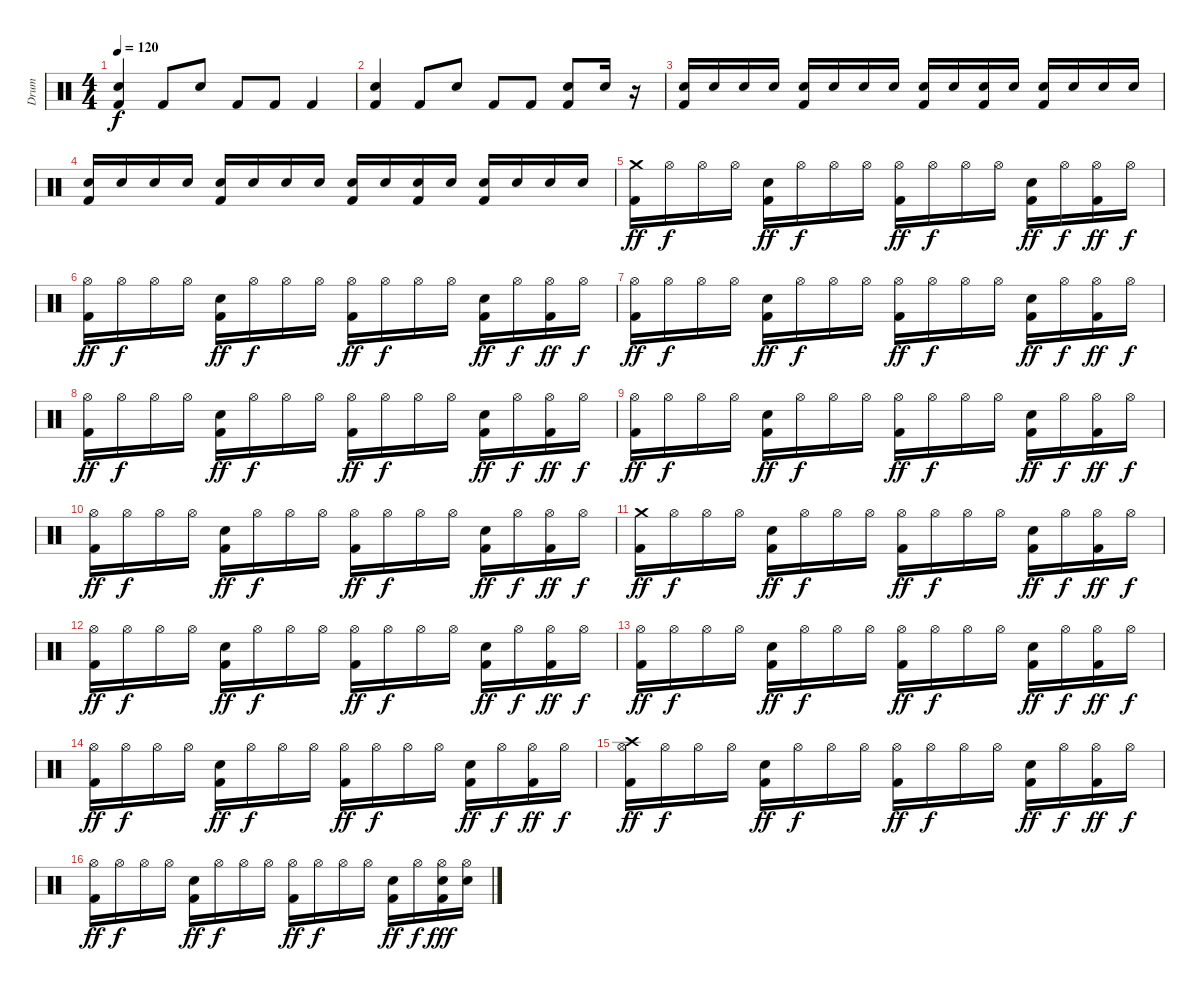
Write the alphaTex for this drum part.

\track ("Drum" "Drum") {instrument percussion}
\staff {score}
\articulation defaults
\ts (4 4)
\tempo 120
\clef neutral
\ks c
("Electric Snare (hit)" "Kick (hit) 2").4{dy f} "Kick (hit) 2".8 "Electric Snare (hit)".8 "Kick (hit) 2".8 "Kick (hit) 2".8 "Kick (hit) 2".4 |
("Electric Snare (hit)" "Kick (hit) 2").4 "Kick (hit) 2".8 "Electric Snare (hit)".8 "Kick (hit) 2".8 "Kick (hit) 2".8 ("Electric Snare (hit)" "Kick (hit) 2").8 "Electric Snare (hit)".16 r.16{volume 2} |
("Electric Snare (hit)" "Kick (hit) 2").16{volume 16} "Electric Snare (hit)".16 "Electric Snare (hit)".16 "Electric Snare (hit)".16 ("Electric Snare (hit)" "Kick (hit) 2").16 "Electric Snare (hit)".16 "Electric Snare (hit)".16 "Electric Snare (hit)".16 ("Electric Snare (hit)" "Kick (hit) 2").16 "Electric Snare (hit)".16 ("Electric Snare (hit)" "Kick (hit) 2").16 "Electric Snare (hit)".16 ("Electric Snare (hit)" "Kick (hit) 2").16 "Electric Snare (hit)".16 "Electric Snare (hit)".16 "Electric Snare (hit)".16 |
("Electric Snare (hit)" "Kick (hit) 2").16 "Electric Snare (hit)".16 "Electric Snare (hit)".16 "Electric Snare (hit)".16 ("Electric Snare (hit)" "Kick (hit) 2").16 "Electric Snare (hit)".16 "Electric Snare (hit)".16 "Electric Snare (hit)".16 ("Electric Snare (hit)" "Kick (hit) 2").16 "Electric Snare (hit)".16 ("Electric Snare (hit)" "Kick (hit) 2").16 "Electric Snare (hit)".16 ("Electric Snare (hit)" "Kick (hit) 2").16 "Electric Snare (hit)".16 "Electric Snare (hit)".16 "Electric Snare (hit)".16 |
("Crash medium (hit)" "Kick (hit) 2").16{dy ff volume 13} "Hi-Hat (open)".16{dy f} "Hi-Hat (open)".16 "Hi-Hat (open)".16 ("Kick (hit) 2" "Electric Snare (hit)").16{dy ff} "Hi-Hat (open)".16{dy f} "Hi-Hat (open)".16 "Hi-Hat (open)".16 ("Hi-Hat (open)" "Kick (hit) 2").16{dy ff} "Hi-Hat (open)".16{dy f} "Hi-Hat (open)".16 "Hi-Hat (open)".16 ("Kick (hit) 2" "Electric Snare (hit)").16{dy ff} "Hi-Hat (open)".16{dy f} ("Hi-Hat (open)" "Kick (hit) 2").16{dy ff} "Hi-Hat (open)".16{dy f} |
("Hi-Hat (open)" "Kick (hit) 2").16{dy ff} "Hi-Hat (open)".16{dy f} "Hi-Hat (open)".16 "Hi-Hat (open)".16 ("Kick (hit) 2" "Electric Snare (hit)").16{dy ff} "Hi-Hat (open)".16{dy f} "Hi-Hat (open)".16 "Hi-Hat (open)".16 ("Hi-Hat (open)" "Kick (hit) 2").16{dy ff} "Hi-Hat (open)".16{dy f} "Hi-Hat (open)".16 "Hi-Hat (open)".16 ("Kick (hit) 2" "Electric Snare (hit)").16{dy ff} "Hi-Hat (open)".16{dy f} ("Hi-Hat (open)" "Kick (hit) 2").16{dy ff} "Hi-Hat (open)".16{dy f} |
("Hi-Hat (open)" "Kick (hit) 2").16{dy ff} "Hi-Hat (open)".16{dy f} "Hi-Hat (open)".16 "Hi-Hat (open)".16 ("Kick (hit) 2" "Electric Snare (hit)").16{dy ff} "Hi-Hat (open)".16{dy f} "Hi-Hat (open)".16 "Hi-Hat (open)".16 ("Hi-Hat (open)" "Kick (hit) 2").16{dy ff} "Hi-Hat (open)".16{dy f} "Hi-Hat (open)".16 "Hi-Hat (open)".16 ("Kick (hit) 2" "Electric Snare (hit)").16{dy ff} "Hi-Hat (open)".16{dy f} ("Hi-Hat (open)" "Kick (hit) 2").16{dy ff} "Hi-Hat (open)".16{dy f} |
("Hi-Hat (open)" "Kick (hit) 2").16{dy ff} "Hi-Hat (open)".16{dy f} "Hi-Hat (open)".16 "Hi-Hat (open)".16 ("Kick (hit) 2" "Electric Snare (hit)").16{dy ff} "Hi-Hat (open)".16{dy f} "Hi-Hat (open)".16 "Hi-Hat (open)".16 ("Hi-Hat (open)" "Kick (hit) 2").16{dy ff} "Hi-Hat (open)".16{dy f} "Hi-Hat (open)".16 "Hi-Hat (open)".16 ("Kick (hit) 2" "Electric Snare (hit)").16{dy ff} "Hi-Hat (open)".16{dy f} ("Hi-Hat (open)" "Kick (hit) 2").16{dy ff} "Hi-Hat (open)".16{dy f} |
("Hi-Hat (open)" "Kick (hit) 2").16{dy ff} "Hi-Hat (open)".16{dy f} "Hi-Hat (open)".16 "Hi-Hat (open)".16 ("Kick (hit) 2" "Electric Snare (hit)").16{dy ff} "Hi-Hat (open)".16{dy f} "Hi-Hat (open)".16 "Hi-Hat (open)".16 ("Hi-Hat (open)" "Kick (hit) 2").16{dy ff} "Hi-Hat (open)".16{dy f} "Hi-Hat (open)".16 "Hi-Hat (open)".16 ("Kick (hit) 2" "Electric Snare (hit)").16{dy ff} "Hi-Hat (open)".16{dy f} ("Hi-Hat (open)" "Kick (hit) 2").16{dy ff} "Hi-Hat (open)".16{dy f} |
("Hi-Hat (open)" "Kick (hit) 2").16{dy ff} "Hi-Hat (open)".16{dy f} "Hi-Hat (open)".16 "Hi-Hat (open)".16 ("Kick (hit) 2" "Electric Snare (hit)").16{dy ff} "Hi-Hat (open)".16{dy f} "Hi-Hat (open)".16 "Hi-Hat (open)".16 ("Hi-Hat (open)" "Kick (hit) 2").16{dy ff} "Hi-Hat (open)".16{dy f} "Hi-Hat (open)".16 "Hi-Hat (open)".16 ("Kick (hit) 2" "Electric Snare (hit)").16{dy ff} "Hi-Hat (open)".16{dy f} ("Hi-Hat (open)" "Kick (hit) 2").16{dy ff} "Hi-Hat (open)".16{dy f} |
("Crash medium (hit)" "Kick (hit) 2").16{dy ff} "Hi-Hat (open)".16{dy f} "Hi-Hat (open)".16 "Hi-Hat (open)".16 ("Kick (hit) 2" "Electric Snare (hit)").16{dy ff} "Hi-Hat (open)".16{dy f} "Hi-Hat (open)".16 "Hi-Hat (open)".16 ("Hi-Hat (open)" "Kick (hit) 2").16{dy ff} "Hi-Hat (open)".16{dy f} "Hi-Hat (open)".16 "Hi-Hat (open)".16 ("Kick (hit) 2" "Electric Snare (hit)").16{dy ff} "Hi-Hat (open)".16{dy f} ("Hi-Hat (open)" "Kick (hit) 2").16{dy ff} "Hi-Hat (open)".16{dy f} |
("Hi-Hat (open)" "Kick (hit) 2").16{dy ff} "Hi-Hat (open)".16{dy f} "Hi-Hat (open)".16 "Hi-Hat (open)".16 ("Kick (hit) 2" "Electric Snare (hit)").16{dy ff} "Hi-Hat (open)".16{dy f} "Hi-Hat (open)".16 "Hi-Hat (open)".16 ("Hi-Hat (open)" "Kick (hit) 2").16{dy ff} "Hi-Hat (open)".16{dy f} "Hi-Hat (open)".16 "Hi-Hat (open)".16 ("Kick (hit) 2" "Electric Snare (hit)").16{dy ff} "Hi-Hat (open)".16{dy f} ("Hi-Hat (open)" "Kick (hit) 2").16{dy ff} "Hi-Hat (open)".16{dy f} |
("Hi-Hat (open)" "Kick (hit) 2").16{dy ff} "Hi-Hat (open)".16{dy f} "Hi-Hat (open)".16 "Hi-Hat (open)".16 ("Kick (hit) 2" "Electric Snare (hit)").16{dy ff} "Hi-Hat (open)".16{dy f} "Hi-Hat (open)".16 "Hi-Hat (open)".16 ("Hi-Hat (open)" "Kick (hit) 2").16{dy ff} "Hi-Hat (open)".16{dy f} "Hi-Hat (open)".16 "Hi-Hat (open)".16 ("Kick (hit) 2" "Electric Snare (hit)").16{dy ff} "Hi-Hat (open)".16{dy f} ("Hi-Hat (open)" "Kick (hit) 2").16{dy ff} "Hi-Hat (open)".16{dy f} |
("Hi-Hat (open)" "Kick (hit) 2").16{dy ff} "Hi-Hat (open)".16{dy f} "Hi-Hat (open)".16 "Hi-Hat (open)".16 ("Kick (hit) 2" "Electric Snare (hit)").16{dy ff} "Hi-Hat (open)".16{dy f} "Hi-Hat (open)".16 "Hi-Hat (open)".16 ("Hi-Hat (open)" "Kick (hit) 2").16{dy ff} "Hi-Hat (open)".16{dy f} "Hi-Hat (open)".16 "Hi-Hat (open)".16 ("Kick (hit) 2" "Electric Snare (hit)").16{dy ff} "Hi-Hat (open)".16{dy f} ("Hi-Hat (open)" "Kick (hit) 2").16{dy ff} "Hi-Hat (open)".16{dy f} |
("Crash high (hit)" "Hi-Hat (open)" "Kick (hit) 2").16{dy ff} "Hi-Hat (open)".16{dy f} "Hi-Hat (open)".16 "Hi-Hat (open)".16 ("Kick (hit) 2" "Electric Snare (hit)").16{dy ff} "Hi-Hat (open)".16{dy f} "Hi-Hat (open)".16 "Hi-Hat (open)".16 ("Hi-Hat (open)" "Kick (hit) 2").16{dy ff} "Hi-Hat (open)".16{dy f} "Hi-Hat (open)".16 "Hi-Hat (open)".16 ("Kick (hit) 2" "Electric Snare (hit)").16{dy ff} "Hi-Hat (open)".16{dy f} ("Hi-Hat (open)" "Kick (hit) 2").16{dy ff} "Hi-Hat (open)".16{dy f} |
("Hi-Hat (open)" "Kick (hit) 2").16{dy ff} "Hi-Hat (open)".16{dy f} "Hi-Hat (open)".16 "Hi-Hat (open)".16 ("Kick (hit) 2" "Electric Snare (hit)").16{dy ff} "Hi-Hat (open)".16{dy f} "Hi-Hat (open)".16 "Hi-Hat (open)".16 ("Hi-Hat (open)" "Kick (hit) 2").16{dy ff} "Hi-Hat (open)".16{dy f} "Hi-Hat (open)".16 "Hi-Hat (open)".16 ("Kick (hit) 2" "Electric Snare (hit)").16{dy ff} "Hi-Hat (open)".16{dy f} ("Hi-Hat (open)" "Kick (hit) 2" "Electric Snare (hit)").16{dy fff} ("Hi-Hat (open)" "Electric Snare (hit)").16
